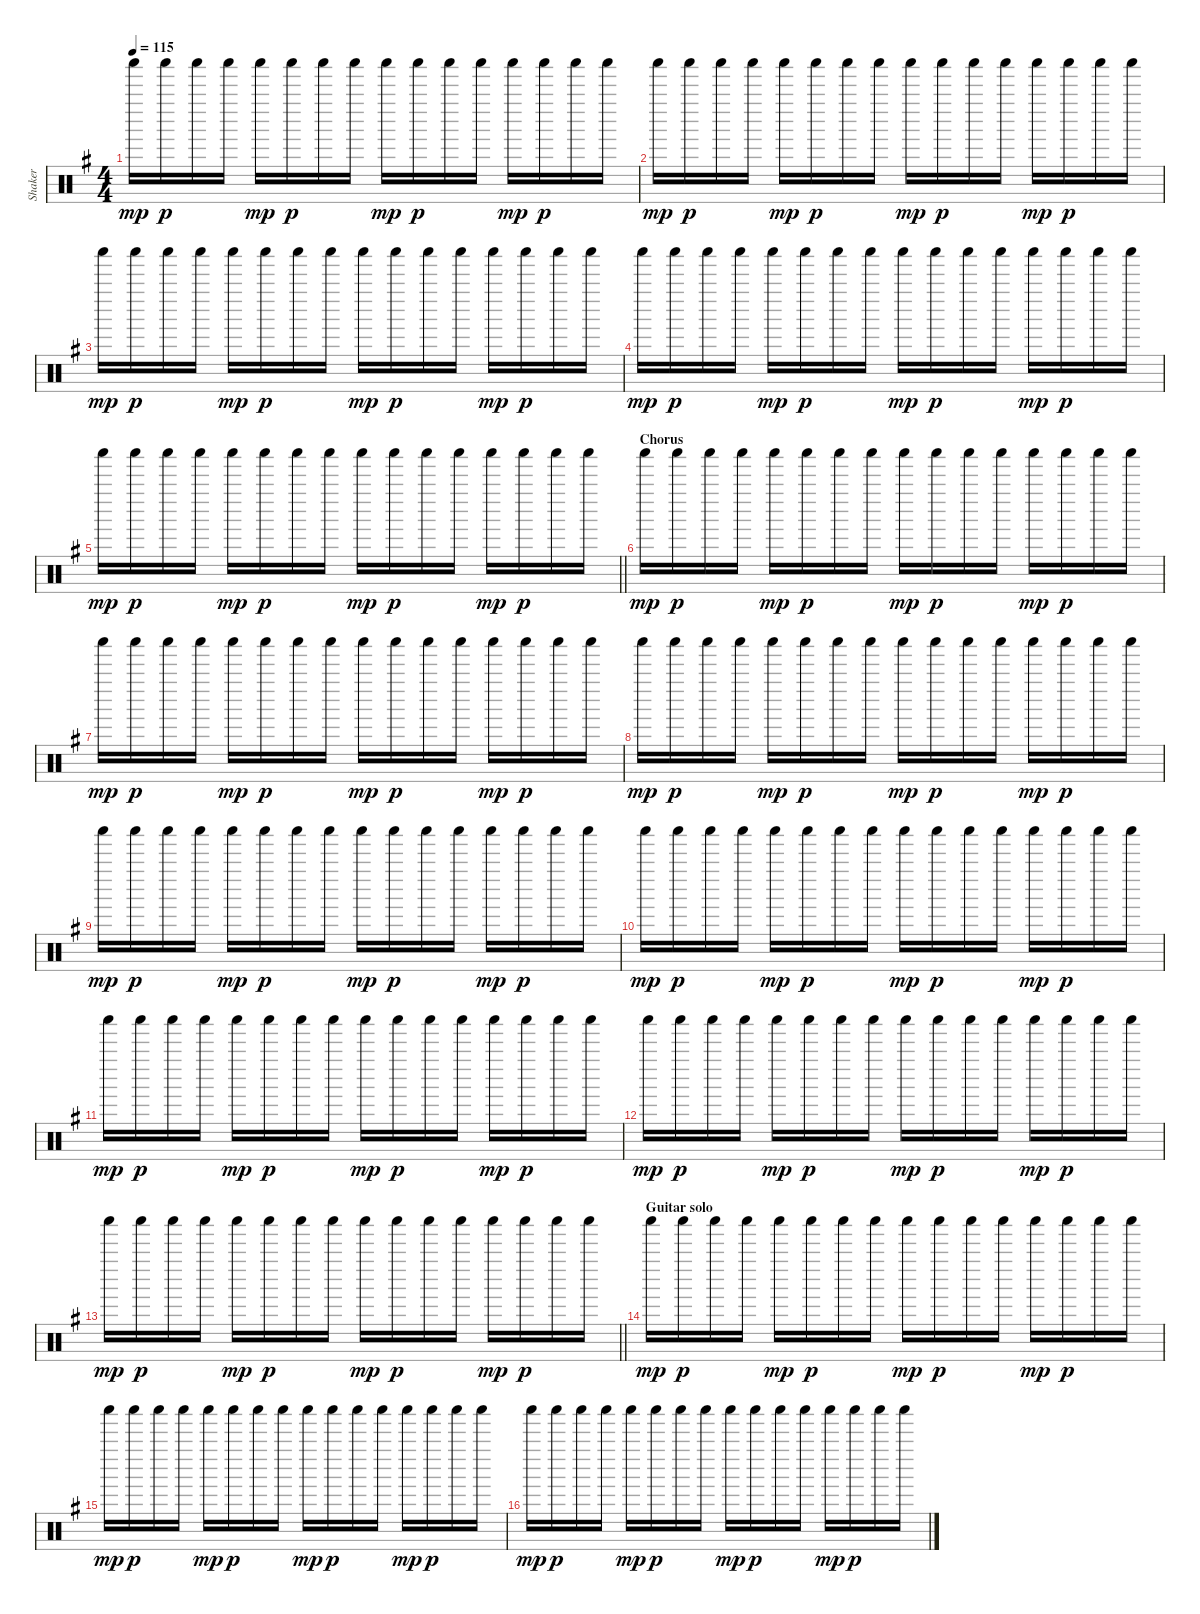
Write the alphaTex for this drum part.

\track ("Shaker" "Shaker") {instrument percussion}
\staff {score}
\articulation defaults
\ts (4 4)
\tempo 115
\clef neutral
\ks g "Shaker (hit)".16{dy mp} "Shaker (hit)".16{dy p} "Shaker (hit)".16 "Shaker (hit)".16 "Shaker (hit)".16{dy mp} "Shaker (hit)".16{dy p} "Shaker (hit)".16 "Shaker (hit)".16 "Shaker (hit)".16{dy mp} "Shaker (hit)".16{dy p} "Shaker (hit)".16 "Shaker (hit)".16 "Shaker (hit)".16{dy mp} "Shaker (hit)".16{dy p} "Shaker (hit)".16 "Shaker (hit)".16
|
"Shaker (hit)".16{dy mp} "Shaker (hit)".16{dy p} "Shaker (hit)".16 "Shaker (hit)".16 "Shaker (hit)".16{dy mp} "Shaker (hit)".16{dy p} "Shaker (hit)".16 "Shaker (hit)".16 "Shaker (hit)".16{dy mp} "Shaker (hit)".16{dy p} "Shaker (hit)".16 "Shaker (hit)".16 "Shaker (hit)".16{dy mp} "Shaker (hit)".16{dy p} "Shaker (hit)".16 "Shaker (hit)".16 |
"Shaker (hit)".16{dy mp} "Shaker (hit)".16{dy p} "Shaker (hit)".16 "Shaker (hit)".16 "Shaker (hit)".16{dy mp} "Shaker (hit)".16{dy p} "Shaker (hit)".16 "Shaker (hit)".16 "Shaker (hit)".16{dy mp} "Shaker (hit)".16{dy p} "Shaker (hit)".16 "Shaker (hit)".16 "Shaker (hit)".16{dy mp} "Shaker (hit)".16{dy p} "Shaker (hit)".16 "Shaker (hit)".16 |
"Shaker (hit)".16{dy mp} "Shaker (hit)".16{dy p} "Shaker (hit)".16 "Shaker (hit)".16 "Shaker (hit)".16{dy mp} "Shaker (hit)".16{dy p} "Shaker (hit)".16 "Shaker (hit)".16 "Shaker (hit)".16{dy mp} "Shaker (hit)".16{dy p} "Shaker (hit)".16 "Shaker (hit)".16 "Shaker (hit)".16{dy mp} "Shaker (hit)".16{dy p} "Shaker (hit)".16 "Shaker (hit)".16 |
\barLineRight lightlight "Shaker (hit)".16{dy mp} "Shaker (hit)".16{dy p} "Shaker (hit)".16 "Shaker (hit)".16 "Shaker (hit)".16{dy mp} "Shaker (hit)".16{dy p} "Shaker (hit)".16 "Shaker (hit)".16 "Shaker (hit)".16{dy mp} "Shaker (hit)".16{dy p} "Shaker (hit)".16 "Shaker (hit)".16 "Shaker (hit)".16{dy mp} "Shaker (hit)".16{dy p} "Shaker (hit)".16 "Shaker (hit)".16
|
\section ("" "Chorus")
"Shaker (hit)".16{dy mp} "Shaker (hit)".16{dy p} "Shaker (hit)".16 "Shaker (hit)".16 "Shaker (hit)".16{dy mp} "Shaker (hit)".16{dy p} "Shaker (hit)".16 "Shaker (hit)".16 "Shaker (hit)".16{dy mp} "Shaker (hit)".16{dy p} "Shaker (hit)".16 "Shaker (hit)".16 "Shaker (hit)".16{dy mp} "Shaker (hit)".16{dy p} "Shaker (hit)".16 "Shaker (hit)".16 |
"Shaker (hit)".16{dy mp} "Shaker (hit)".16{dy p} "Shaker (hit)".16 "Shaker (hit)".16 "Shaker (hit)".16{dy mp} "Shaker (hit)".16{dy p} "Shaker (hit)".16 "Shaker (hit)".16 "Shaker (hit)".16{dy mp} "Shaker (hit)".16{dy p} "Shaker (hit)".16 "Shaker (hit)".16 "Shaker (hit)".16{dy mp} "Shaker (hit)".16{dy p} "Shaker (hit)".16 "Shaker (hit)".16 |
"Shaker (hit)".16{dy mp} "Shaker (hit)".16{dy p} "Shaker (hit)".16 "Shaker (hit)".16 "Shaker (hit)".16{dy mp} "Shaker (hit)".16{dy p} "Shaker (hit)".16 "Shaker (hit)".16 "Shaker (hit)".16{dy mp} "Shaker (hit)".16{dy p} "Shaker (hit)".16 "Shaker (hit)".16 "Shaker (hit)".16{dy mp} "Shaker (hit)".16{dy p} "Shaker (hit)".16 "Shaker (hit)".16 |
"Shaker (hit)".16{dy mp} "Shaker (hit)".16{dy p} "Shaker (hit)".16 "Shaker (hit)".16 "Shaker (hit)".16{dy mp} "Shaker (hit)".16{dy p} "Shaker (hit)".16 "Shaker (hit)".16 "Shaker (hit)".16{dy mp} "Shaker (hit)".16{dy p} "Shaker (hit)".16 "Shaker (hit)".16 "Shaker (hit)".16{dy mp} "Shaker (hit)".16{dy p} "Shaker (hit)".16 "Shaker (hit)".16 |
"Shaker (hit)".16{dy mp} "Shaker (hit)".16{dy p} "Shaker (hit)".16 "Shaker (hit)".16 "Shaker (hit)".16{dy mp} "Shaker (hit)".16{dy p} "Shaker (hit)".16 "Shaker (hit)".16 "Shaker (hit)".16{dy mp} "Shaker (hit)".16{dy p} "Shaker (hit)".16 "Shaker (hit)".16 "Shaker (hit)".16{dy mp} "Shaker (hit)".16{dy p} "Shaker (hit)".16 "Shaker (hit)".16 |
"Shaker (hit)".16{dy mp} "Shaker (hit)".16{dy p} "Shaker (hit)".16 "Shaker (hit)".16 "Shaker (hit)".16{dy mp} "Shaker (hit)".16{dy p} "Shaker (hit)".16 "Shaker (hit)".16 "Shaker (hit)".16{dy mp} "Shaker (hit)".16{dy p} "Shaker (hit)".16 "Shaker (hit)".16 "Shaker (hit)".16{dy mp} "Shaker (hit)".16{dy p} "Shaker (hit)".16 "Shaker (hit)".16 |
"Shaker (hit)".16{dy mp} "Shaker (hit)".16{dy p} "Shaker (hit)".16 "Shaker (hit)".16 "Shaker (hit)".16{dy mp} "Shaker (hit)".16{dy p} "Shaker (hit)".16 "Shaker (hit)".16 "Shaker (hit)".16{dy mp} "Shaker (hit)".16{dy p} "Shaker (hit)".16 "Shaker (hit)".16 "Shaker (hit)".16{dy mp} "Shaker (hit)".16{dy p} "Shaker (hit)".16 "Shaker (hit)".16 |
\barLineRight lightlight "Shaker (hit)".16{dy mp} "Shaker (hit)".16{dy p} "Shaker (hit)".16 "Shaker (hit)".16 "Shaker (hit)".16{dy mp} "Shaker (hit)".16{dy p} "Shaker (hit)".16 "Shaker (hit)".16 "Shaker (hit)".16{dy mp} "Shaker (hit)".16{dy p} "Shaker (hit)".16 "Shaker (hit)".16 "Shaker (hit)".16{dy mp} "Shaker (hit)".16{dy p} "Shaker (hit)".16 "Shaker (hit)".16
|
\section ("" "Guitar solo")
"Shaker (hit)".16{dy mp} "Shaker (hit)".16{dy p} "Shaker (hit)".16 "Shaker (hit)".16 "Shaker (hit)".16{dy mp} "Shaker (hit)".16{dy p} "Shaker (hit)".16 "Shaker (hit)".16 "Shaker (hit)".16{dy mp} "Shaker (hit)".16{dy p} "Shaker (hit)".16 "Shaker (hit)".16 "Shaker (hit)".16{dy mp} "Shaker (hit)".16{dy p} "Shaker (hit)".16 "Shaker (hit)".16 |
"Shaker (hit)".16{dy mp} "Shaker (hit)".16{dy p} "Shaker (hit)".16 "Shaker (hit)".16 "Shaker (hit)".16{dy mp} "Shaker (hit)".16{dy p} "Shaker (hit)".16 "Shaker (hit)".16 "Shaker (hit)".16{dy mp} "Shaker (hit)".16{dy p} "Shaker (hit)".16 "Shaker (hit)".16 "Shaker (hit)".16{dy mp} "Shaker (hit)".16{dy p} "Shaker (hit)".16 "Shaker (hit)".16 |
"Shaker (hit)".16{dy mp} "Shaker (hit)".16{dy p} "Shaker (hit)".16 "Shaker (hit)".16 "Shaker (hit)".16{dy mp} "Shaker (hit)".16{dy p} "Shaker (hit)".16 "Shaker (hit)".16 "Shaker (hit)".16{dy mp} "Shaker (hit)".16{dy p} "Shaker (hit)".16 "Shaker (hit)".16 "Shaker (hit)".16{dy mp} "Shaker (hit)".16{dy p} "Shaker (hit)".16 "Shaker (hit)".16
